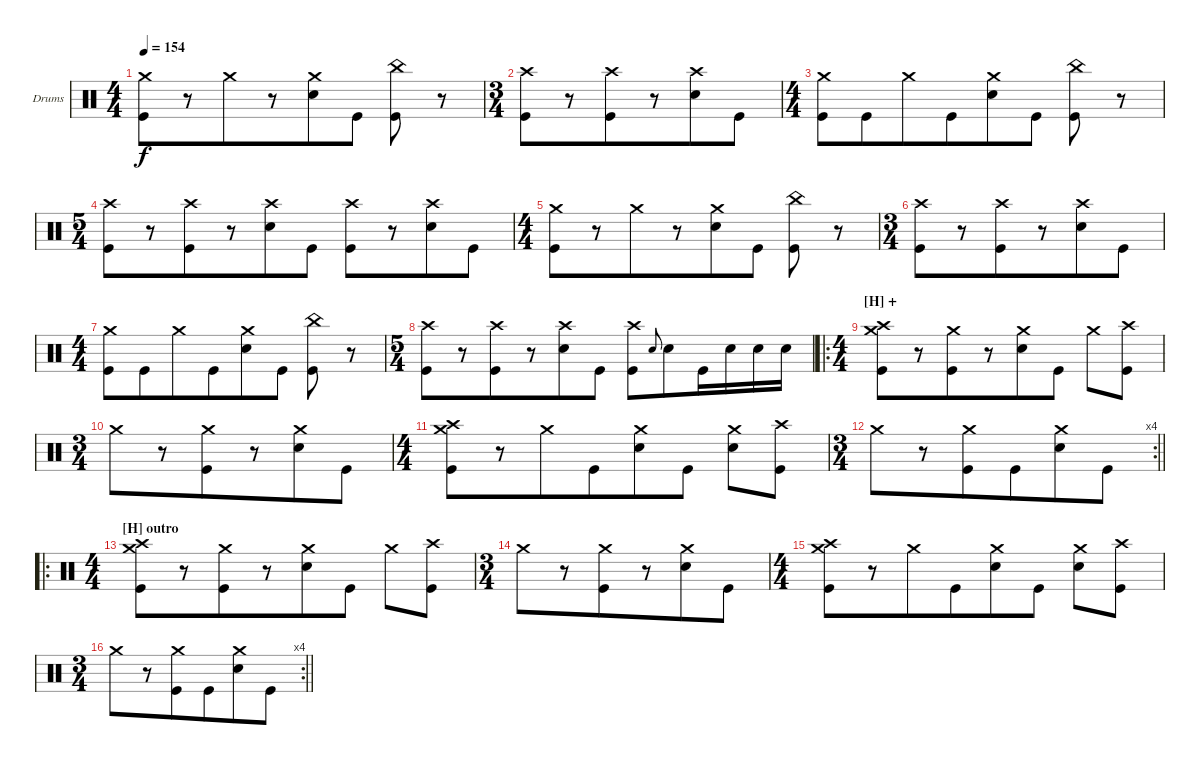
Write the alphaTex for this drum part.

\bracketExtendMode groupsimilarinstruments
\firstSystemTrackNameOrientation horizontal
\otherSystemsTrackNameOrientation horizontal
\track ("Navene Koperweis" "Drums") {instrument percussion}
\staff {score}
\articulation defaults
\ts (4 4)
\beaming (8 6 4)
\tempo 154
\clef neutral
\ks c
("Crash medium (hit)" "Kick (hit)").8{dy f} r.8 "Crash medium (hit)".8 r.8 ("Crash medium (hit)" "Snare (hit) 2").8 "Kick (hit)".8 ("China (hit)" "Kick (hit)").8 r.8 |
\ts (3 4)
\beaming (8 6 4)
("Crash high (hit)" "Kick (hit)").8 r.8 ("Crash high (hit)" "Kick (hit)").8 r.8 ("Crash high (hit)" "Snare (hit) 2").8 "Kick (hit)".8 |
\ts (4 4)
\beaming (8 6 4)
("Crash medium (hit)" "Kick (hit)").8 "Kick (hit)".8 "Crash medium (hit)".8 "Kick (hit)".8 ("Crash medium (hit)" "Snare (hit) 2").8 "Kick (hit)".8 ("China (hit)" "Kick (hit)").8 r.8 |
\ts (5 4)
\beaming (8 6 4)
("Crash high (hit)" "Kick (hit)").8 r.8 ("Crash high (hit)" "Kick (hit)").8 r.8 ("Crash high (hit)" "Snare (hit) 2").8 "Kick (hit)".8 ("Crash high (hit)" "Kick (hit)").8 r.8 ("Crash high (hit)" "Snare (hit) 2").8 "Kick (hit)".8 |
\ts (4 4)
\beaming (8 6 4)
("Crash medium (hit)" "Kick (hit)").8 r.8 "Crash medium (hit)".8 r.8 ("Crash medium (hit)" "Snare (hit) 2").8 "Kick (hit)".8 ("China (hit)" "Kick (hit)").8 r.8 |
\ts (3 4)
\beaming (8 6 4)
("Crash high (hit)" "Kick (hit)").8 r.8 ("Crash high (hit)" "Kick (hit)").8 r.8 ("Crash high (hit)" "Snare (hit) 2").8 "Kick (hit)".8 |
\ts (4 4)
\beaming (8 6 4)
("Crash medium (hit)" "Kick (hit)").8 "Kick (hit)".8 "Crash medium (hit)".8 "Kick (hit)".8 ("Crash medium (hit)" "Snare (hit) 2").8 "Kick (hit)".8 ("China (hit)" "Kick (hit)").8 r.8 |
\ts (5 4)
\beaming (8 6 4)
("Crash high (hit)" "Kick (hit)").8 r.8 ("Crash high (hit)" "Kick (hit)").8 r.8 ("Crash high (hit)" "Snare (hit) 2").8 "Kick (hit)".8 ("Crash high (hit)" "Kick (hit)").8 "Snare (hit) 2".8{gr onbeat} "Snare (hit) 2".8 "Kick (hit)".16 "Snare (hit) 2".16 "Snare (hit) 2".16 "Snare (hit) 2".16 |
\ro
\ts (4 4)
\beaming (8 6 4)
\section ("H" "+")
("Crash medium (hit)" "Crash high (hit)" "Kick (hit)").8 r.8 ("Crash medium (hit)" "Kick (hit)").8 r.8 ("Crash medium (hit)" "Snare (hit) 2").8 "Kick (hit)".8 "Crash medium (hit)".8 ("Crash high (hit)" "Kick (hit)").8 |
\ts (3 4)
\beaming (8 6 4)
"Crash medium (hit)".8 r.8 ("Crash medium (hit)" "Kick (hit)").8 r.8 ("Crash medium (hit)" "Snare (hit) 2").8 "Kick (hit)".8 |
\ts (4 4)
\beaming (8 6 4)
("Crash medium (hit)" "Crash high (hit)" "Kick (hit)").8 r.8 "Crash medium (hit)".8 "Kick (hit)".8 ("Crash medium (hit)" "Snare (hit) 2").8 "Kick (hit)".8 ("Crash medium (hit)" "Snare (hit) 2").8 ("Crash high (hit)" "Kick (hit)").8 |
\rc 4
\ts (3 4)
\beaming (8 6 4)
\barLineRight lightlight "Crash medium (hit)".8
r.8 ("Crash medium (hit)" "Kick (hit)").8 "Kick (hit)".8 ("Crash medium (hit)" "Snare (hit) 2").8 "Kick (hit)".8 |
\ro
\ts (4 4)
\beaming (8 6 4)
\section ("H" "outro")
("Crash medium (hit)" "Crash high (hit)" "Kick (hit)").8 r.8 ("Crash medium (hit)" "Kick (hit)").8 r.8 ("Crash medium (hit)" "Snare (hit) 2").8 "Kick (hit)".8 "Crash medium (hit)".8 ("Crash high (hit)" "Kick (hit)").8 |
\ts (3 4)
\beaming (8 6 4)
"Crash medium (hit)".8 r.8 ("Crash medium (hit)" "Kick (hit)").8 r.8 ("Crash medium (hit)" "Snare (hit) 2").8 "Kick (hit)".8 |
\ts (4 4)
\beaming (8 6 4)
("Crash medium (hit)" "Crash high (hit)" "Kick (hit)").8 r.8 "Crash medium (hit)".8 "Kick (hit)".8 ("Crash medium (hit)" "Snare (hit) 2").8 "Kick (hit)".8 ("Crash medium (hit)" "Snare (hit) 2").8 ("Crash high (hit)" "Kick (hit)").8 |
\rc 4
\ts (3 4)
\beaming (8 6 4)
\barLineRight lightlight "Crash medium (hit)".8
r.8 ("Crash medium (hit)" "Kick (hit)").8 "Kick (hit)".8 ("Crash medium (hit)" "Snare (hit) 2").8 "Kick (hit)".8
